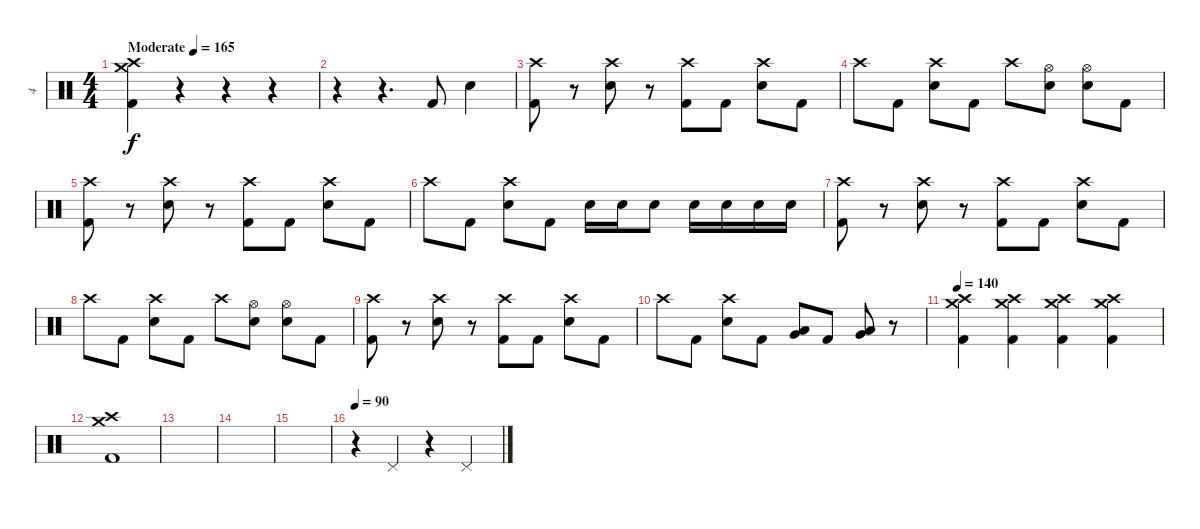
\track ("4" "4") {instrument percussion}
\staff
\articulation defaults
\ts (4 4)
\tempo (165 "Moderate")
\clef neutral
\ks c
("Kick (hit) 2" "Crash high (hit)" "Crash medium (hit)").4{dy f} r.4 r.4 r.4 |
r.4 r.4{d} "Kick (hit) 2".8 "Electric Snare (hit)".4 |
("Kick (hit) 2" "Crash high (hit)").8 r.8 ("Electric Snare (hit)" "Crash high (hit)").8 r.8 ("Kick (hit) 2" "Crash high (hit)").8 "Kick (hit) 2".8 ("Electric Snare (hit)" "Crash high (hit)").8 "Kick (hit) 2".8 |
"Crash high (hit)".8 "Kick (hit) 2".8 ("Electric Snare (hit)" "Crash high (hit)").8 "Kick (hit) 2".8 "Crash high (hit)".8 ("Electric Snare (hit)" "Hi-Hat (open)").8 ("Electric Snare (hit)" "Hi-Hat (open)").8 "Kick (hit) 2".8 |
("Kick (hit) 2" "Crash high (hit)").8 r.8 ("Electric Snare (hit)" "Crash high (hit)").8 r.8 ("Kick (hit) 2" "Crash high (hit)").8 "Kick (hit) 2".8 ("Electric Snare (hit)" "Crash high (hit)").8 "Kick (hit) 2".8 |
"Crash high (hit)".8 "Kick (hit) 2".8 ("Electric Snare (hit)" "Crash high (hit)").8 "Kick (hit) 2".8 "Electric Snare (hit)".16 "Electric Snare (hit)".16 "Electric Snare (hit)".8 "Electric Snare (hit)".16 "Electric Snare (hit)".16 "Electric Snare (hit)".16 "Electric Snare (hit)".16 |
("Kick (hit) 2" "Crash high (hit)").8 r.8 ("Electric Snare (hit)" "Crash high (hit)").8 r.8 ("Kick (hit) 2" "Crash high (hit)").8 "Kick (hit) 2".8 ("Electric Snare (hit)" "Crash high (hit)").8 "Kick (hit) 2".8 |
"Crash high (hit)".8 "Kick (hit) 2".8 ("Electric Snare (hit)" "Crash high (hit)").8 "Kick (hit) 2".8 "Crash high (hit)".8 ("Electric Snare (hit)" "Hi-Hat (open)").8 ("Electric Snare (hit)" "Hi-Hat (open)").8 "Kick (hit) 2".8 |
("Kick (hit) 2" "Crash high (hit)").8 r.8 ("Electric Snare (hit)" "Crash high (hit)").8 r.8 ("Kick (hit) 2" "Crash high (hit)").8 "Kick (hit) 2".8 ("Electric Snare (hit)" "Crash high (hit)").8 "Kick (hit) 2".8 |
"Crash high (hit)".8 "Kick (hit) 2".8 ("Electric Snare (hit)" "Crash high (hit)").8 "Kick (hit) 2".8 ("Low Tom (hit)" "Very Low Tom (hit)").8{bd 60} "Kick (hit) 2".8 ("Very Low Tom (hit)" "Low Floor Tom (hit)").8{bd 60} r.8 |
\tempo 140
("Kick (hit) 2" "Crash high (hit)" "Crash medium (hit)").4 ("Kick (hit) 2" "Crash high (hit)" "Crash medium (hit)").4 ("Kick (hit) 2" "Crash high (hit)" "Crash medium (hit)").4 ("Kick (hit) 2" "Crash high (hit)" "Crash medium (hit)").4 |
("Kick (hit) 2" "Crash high (hit)" "Crash medium (hit)").1 |
|
|
|
\tempo 90
r.4 "Pedal Hi-Hat (hit)".4 r.4 "Pedal Hi-Hat (hit)".4
